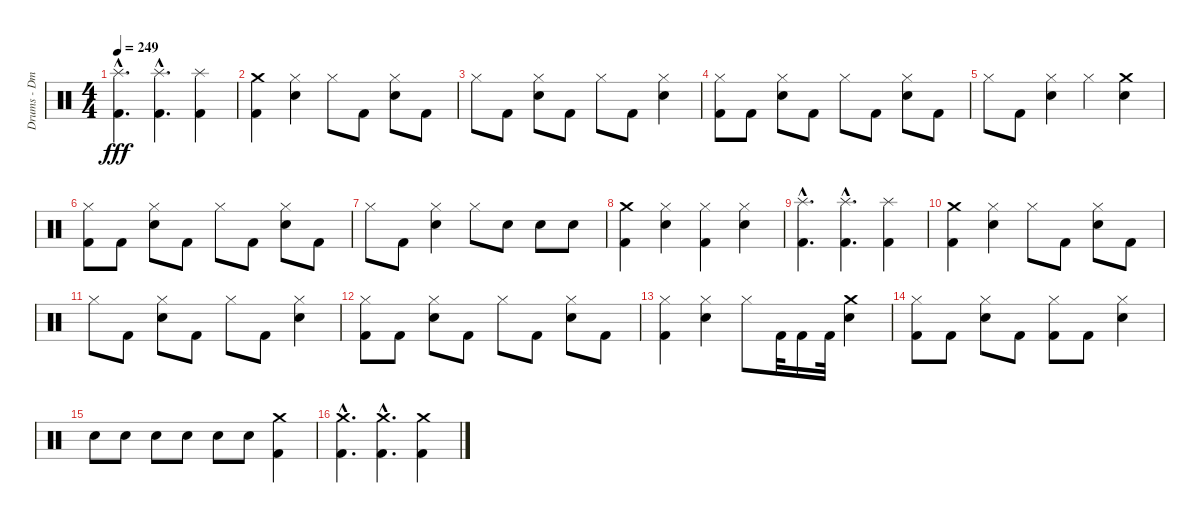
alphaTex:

\track ("Drums - Dmitriy Krivenkov" "Drums - Dm") {instrument percussion}
\staff {score}
\articulation defaults
\ts (4 4)
\tempo 249
\clef neutral
\ks c
("Kick (hit) 2"{hac} "Splash (hit)"{hac}).4{d dy fff} ("Kick (hit) 2"{hac} "Splash (hit)"{hac}).4{d} ("Kick (hit) 2" "Splash (hit)").4 |
("Kick (hit) 2" "Crash medium (hit)").4 ("Hi-Hat (closed)" "Electric Snare (hit)").4 "Hi-Hat (closed)".8 "Kick (hit) 2".8 ("Hi-Hat (closed)" "Electric Snare (hit)").8 "Kick (hit) 2".8 |
"Hi-Hat (closed)".8 "Kick (hit) 2".8 ("Hi-Hat (closed)" "Electric Snare (hit)").8 "Kick (hit) 2".8 "Hi-Hat (closed)".8 "Kick (hit) 2".8 ("Hi-Hat (closed)" "Electric Snare (hit)").4 |
("Kick (hit) 2" "Hi-Hat (closed)").8 "Kick (hit) 2".8 ("Hi-Hat (closed)" "Electric Snare (hit)").8 "Kick (hit) 2".8 "Hi-Hat (closed)".8 "Kick (hit) 2".8 ("Hi-Hat (closed)" "Electric Snare (hit)").8 "Kick (hit) 2".8 |
"Hi-Hat (closed)".8 "Kick (hit) 2".8 ("Hi-Hat (closed)" "Electric Snare (hit)").4 "Hi-Hat (closed)".4 ("Crash medium (hit)" "Electric Snare (hit)").4 |
("Kick (hit) 2" "Hi-Hat (closed)").8 "Kick (hit) 2".8 ("Hi-Hat (closed)" "Electric Snare (hit)").8 "Kick (hit) 2".8 "Hi-Hat (closed)".8 "Kick (hit) 2".8 ("Hi-Hat (closed)" "Electric Snare (hit)").8 "Kick (hit) 2".8 |
"Hi-Hat (closed)".8 "Kick (hit) 2".8 ("Hi-Hat (closed)" "Electric Snare (hit)").4 "Hi-Hat (closed)".8 "Electric Snare (hit)".8 "Electric Snare (hit)".8 "Electric Snare (hit)".8 |
("Kick (hit) 2" "Crash medium (hit)").4 ("Hi-Hat (closed)" "Electric Snare (hit)").4 ("Kick (hit) 2" "Hi-Hat (closed)").4 ("Hi-Hat (closed)" "Electric Snare (hit)").4 |
("Kick (hit) 2"{hac} "Splash (hit)"{hac}).4{d} ("Kick (hit) 2"{hac} "Splash (hit)"{hac}).4{d} ("Kick (hit) 2" "Splash (hit)").4 |
("Kick (hit) 2" "Crash medium (hit)").4 ("Hi-Hat (closed)" "Electric Snare (hit)").4 "Hi-Hat (closed)".8 "Kick (hit) 2".8 ("Hi-Hat (closed)" "Electric Snare (hit)").8 "Kick (hit) 2".8 |
"Hi-Hat (closed)".8 "Kick (hit) 2".8 ("Hi-Hat (closed)" "Electric Snare (hit)").8 "Kick (hit) 2".8 "Hi-Hat (closed)".8 "Kick (hit) 2".8 ("Hi-Hat (closed)" "Electric Snare (hit)").4 |
("Kick (hit) 2" "Hi-Hat (closed)").8 "Kick (hit) 2".8 ("Hi-Hat (closed)" "Electric Snare (hit)").8 "Kick (hit) 2".8 "Hi-Hat (closed)".8 "Kick (hit) 2".8 ("Hi-Hat (closed)" "Electric Snare (hit)").8 "Kick (hit) 2".8 |
("Kick (hit) 2" "Hi-Hat (closed)").4 ("Hi-Hat (closed)" "Electric Snare (hit)").4 "Hi-Hat (closed)".8 "Kick (hit) 2".32 "Kick (hit) 2".16 "Kick (hit) 2".32 ("Crash medium (hit)" "Electric Snare (hit)").4 |
("Kick (hit) 2" "Hi-Hat (closed)").8 "Kick (hit) 2".8 ("Hi-Hat (closed)" "Electric Snare (hit)").8 "Kick (hit) 2".8 ("Kick (hit) 2" "Hi-Hat (closed)").8 "Kick (hit) 2".8 ("Hi-Hat (closed)" "Electric Snare (hit)").4 |
"Electric Snare (hit)".8 "Electric Snare (hit)".8 "Electric Snare (hit)".8 "Electric Snare (hit)".8 "Electric Snare (hit)".8 "Electric Snare (hit)".8 ("Kick (hit) 2" "Crash medium (hit)").4 |
("Kick (hit) 2"{hac} "Crash medium (hit)"{hac}).4{d} ("Kick (hit) 2"{hac} "Crash medium (hit)"{hac}).4{d} ("Kick (hit) 2" "Crash medium (hit)").4
